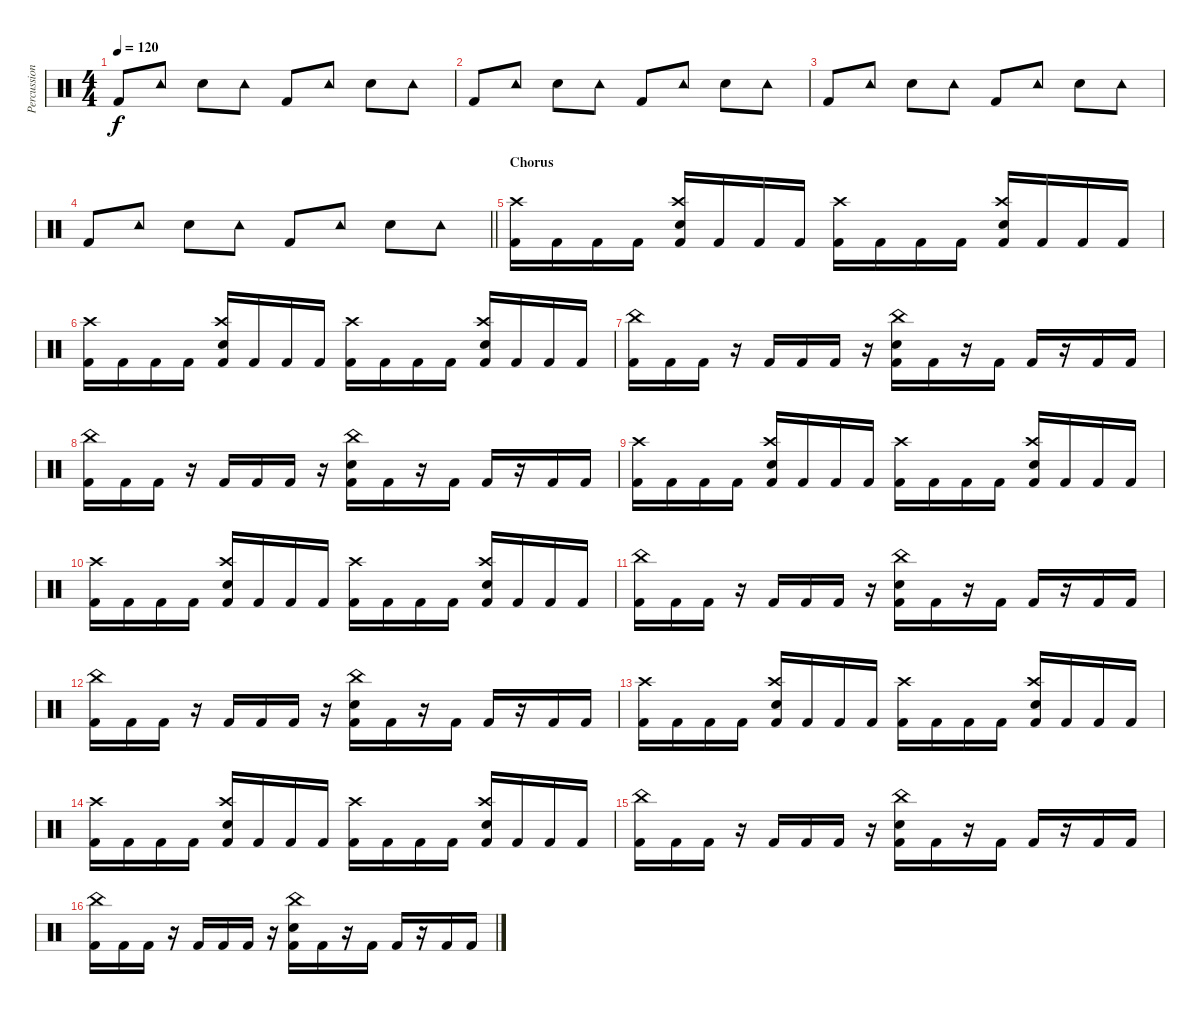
\track ("Percussion" "Percussion") {instrument percussion}
\staff {score}
\articulation defaults
\ts (4 4)
\tempo 120
\clef neutral
\ks c "Kick (hit) 2".8{dy f} "Tambourine (hit)".8 "Hand Clap (hit)".8 "Tambourine (hit)".8 "Kick (hit) 2".8 "Tambourine (hit)".8 "Hand Clap (hit)".8 "Tambourine (hit)".8
|
"Kick (hit) 2".8 "Tambourine (hit)".8 "Hand Clap (hit)".8 "Tambourine (hit)".8 "Kick (hit) 2".8 "Tambourine (hit)".8 "Hand Clap (hit)".8 "Tambourine (hit)".8 |
"Kick (hit) 2".8 "Tambourine (hit)".8 "Hand Clap (hit)".8 "Tambourine (hit)".8 "Kick (hit) 2".8 "Tambourine (hit)".8 "Hand Clap (hit)".8 "Tambourine (hit)".8 |
\barLineRight lightlight "Kick (hit) 2".8 "Tambourine (hit)".8 "Hand Clap (hit)".8 "Tambourine (hit)".8 "Kick (hit) 2".8 "Tambourine (hit)".8 "Hand Clap (hit)".8 "Tambourine (hit)".8
|
\section ("" "Chorus")
("Crash high (hit)" "Kick (hit) 2").16 "Kick (hit) 2".16 "Kick (hit) 2".16 "Kick (hit) 2".16 ("Snare (hit) 2" "Crash high (hit)" "Kick (hit) 2").16 "Kick (hit) 2".16 "Kick (hit) 2".16 "Kick (hit) 2".16 ("Crash high (hit)" "Kick (hit) 2").16 "Kick (hit) 2".16 "Kick (hit) 2".16 "Kick (hit) 2".16 ("Snare (hit) 2" "Crash high (hit)" "Kick (hit) 2").16 "Kick (hit) 2".16 "Kick (hit) 2".16 "Kick (hit) 2".16 |
("Crash high (hit)" "Kick (hit) 2").16 "Kick (hit) 2".16 "Kick (hit) 2".16 "Kick (hit) 2".16 ("Snare (hit) 2" "Crash high (hit)" "Kick (hit) 2").16 "Kick (hit) 2".16 "Kick (hit) 2".16 "Kick (hit) 2".16 ("Crash high (hit)" "Kick (hit) 2").16 "Kick (hit) 2".16 "Kick (hit) 2".16 "Kick (hit) 2".16 ("Snare (hit) 2" "Crash high (hit)" "Kick (hit) 2").16 "Kick (hit) 2".16 "Kick (hit) 2".16 "Kick (hit) 2".16 |
("China (hit)" "Kick (hit) 2").16 "Kick (hit) 2".16 "Kick (hit) 2".16 r.16 "Kick (hit) 2".16 "Kick (hit) 2".16 "Kick (hit) 2".16 r.16 ("Snare (hit) 2" "China (hit)" "Kick (hit) 2").16 "Kick (hit) 2".16 r.16 "Kick (hit) 2".16 "Kick (hit) 2".16 r.16 "Kick (hit) 2".16 "Kick (hit) 2".16 |
("China (hit)" "Kick (hit) 2").16 "Kick (hit) 2".16 "Kick (hit) 2".16 r.16 "Kick (hit) 2".16 "Kick (hit) 2".16 "Kick (hit) 2".16 r.16 ("Snare (hit) 2" "China (hit)" "Kick (hit) 2").16 "Kick (hit) 2".16 r.16 "Kick (hit) 2".16 "Kick (hit) 2".16 r.16 "Kick (hit) 2".16 "Kick (hit) 2".16 |
("Crash high (hit)" "Kick (hit) 2").16 "Kick (hit) 2".16 "Kick (hit) 2".16 "Kick (hit) 2".16 ("Snare (hit) 2" "Crash high (hit)" "Kick (hit) 2").16 "Kick (hit) 2".16 "Kick (hit) 2".16 "Kick (hit) 2".16 ("Crash high (hit)" "Kick (hit) 2").16 "Kick (hit) 2".16 "Kick (hit) 2".16 "Kick (hit) 2".16 ("Snare (hit) 2" "Crash high (hit)" "Kick (hit) 2").16 "Kick (hit) 2".16 "Kick (hit) 2".16 "Kick (hit) 2".16 |
("Crash high (hit)" "Kick (hit) 2").16 "Kick (hit) 2".16 "Kick (hit) 2".16 "Kick (hit) 2".16 ("Snare (hit) 2" "Crash high (hit)" "Kick (hit) 2").16 "Kick (hit) 2".16 "Kick (hit) 2".16 "Kick (hit) 2".16 ("Crash high (hit)" "Kick (hit) 2").16 "Kick (hit) 2".16 "Kick (hit) 2".16 "Kick (hit) 2".16 ("Snare (hit) 2" "Crash high (hit)" "Kick (hit) 2").16 "Kick (hit) 2".16 "Kick (hit) 2".16 "Kick (hit) 2".16 |
("China (hit)" "Kick (hit) 2").16 "Kick (hit) 2".16 "Kick (hit) 2".16 r.16 "Kick (hit) 2".16 "Kick (hit) 2".16 "Kick (hit) 2".16 r.16 ("Snare (hit) 2" "China (hit)" "Kick (hit) 2").16 "Kick (hit) 2".16 r.16 "Kick (hit) 2".16 "Kick (hit) 2".16 r.16 "Kick (hit) 2".16 "Kick (hit) 2".16 |
("China (hit)" "Kick (hit) 2").16 "Kick (hit) 2".16 "Kick (hit) 2".16 r.16 "Kick (hit) 2".16 "Kick (hit) 2".16 "Kick (hit) 2".16 r.16 ("Snare (hit) 2" "China (hit)" "Kick (hit) 2").16 "Kick (hit) 2".16 r.16 "Kick (hit) 2".16 "Kick (hit) 2".16 r.16 "Kick (hit) 2".16 "Kick (hit) 2".16 |
("Crash high (hit)" "Kick (hit) 2").16 "Kick (hit) 2".16 "Kick (hit) 2".16 "Kick (hit) 2".16 ("Snare (hit) 2" "Crash high (hit)" "Kick (hit) 2").16 "Kick (hit) 2".16 "Kick (hit) 2".16 "Kick (hit) 2".16 ("Crash high (hit)" "Kick (hit) 2").16 "Kick (hit) 2".16 "Kick (hit) 2".16 "Kick (hit) 2".16 ("Snare (hit) 2" "Crash high (hit)" "Kick (hit) 2").16 "Kick (hit) 2".16 "Kick (hit) 2".16 "Kick (hit) 2".16 |
("Crash high (hit)" "Kick (hit) 2").16 "Kick (hit) 2".16 "Kick (hit) 2".16 "Kick (hit) 2".16 ("Snare (hit) 2" "Crash high (hit)" "Kick (hit) 2").16 "Kick (hit) 2".16 "Kick (hit) 2".16 "Kick (hit) 2".16 ("Crash high (hit)" "Kick (hit) 2").16 "Kick (hit) 2".16 "Kick (hit) 2".16 "Kick (hit) 2".16 ("Snare (hit) 2" "Crash high (hit)" "Kick (hit) 2").16 "Kick (hit) 2".16 "Kick (hit) 2".16 "Kick (hit) 2".16 |
("China (hit)" "Kick (hit) 2").16 "Kick (hit) 2".16 "Kick (hit) 2".16 r.16 "Kick (hit) 2".16 "Kick (hit) 2".16 "Kick (hit) 2".16 r.16 ("Snare (hit) 2" "China (hit)" "Kick (hit) 2").16 "Kick (hit) 2".16 r.16 "Kick (hit) 2".16 "Kick (hit) 2".16 r.16 "Kick (hit) 2".16 "Kick (hit) 2".16 |
("China (hit)" "Kick (hit) 2").16 "Kick (hit) 2".16 "Kick (hit) 2".16 r.16 "Kick (hit) 2".16 "Kick (hit) 2".16 "Kick (hit) 2".16 r.16 ("Snare (hit) 2" "China (hit)" "Kick (hit) 2").16 "Kick (hit) 2".16 r.16 "Kick (hit) 2".16 "Kick (hit) 2".16 r.16 "Kick (hit) 2".16 "Kick (hit) 2".16
